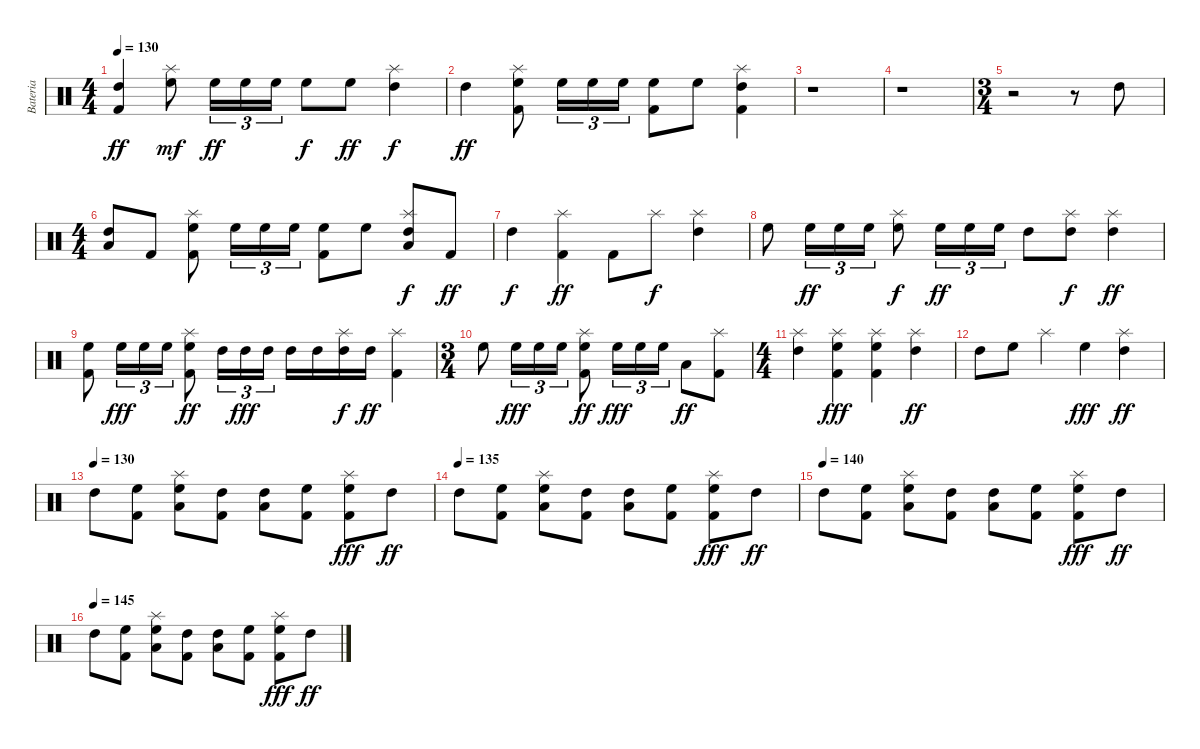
\track ("Bateria" "Bateria") {instrument percussion}
\staff {score}
\articulation defaults
\ts (4 4)
\tempo 130
\clef neutral
\ks c
("High Tom (hit)" "Kick (hit) 2").4{dy ff} ("High Floor Tom (hit)" "Splash (hit)").8{dy mf} "High Floor Tom (hit)".16{tu (3 2) dy ff} "High Floor Tom (hit)".16{tu (3 2)} "High Floor Tom (hit)".16{tu (3 2)} "High Floor Tom (hit)".8{dy f} "High Floor Tom (hit)".8{dy ff} ("High Tom (hit)" "Splash (hit)").4{dy f} |
"High Tom (hit)".4{dy ff} ("High Floor Tom (hit)" "Splash (hit)" "Kick (hit) 2").8 "High Floor Tom (hit)".16{tu (3 2)} "High Floor Tom (hit)".16{tu (3 2)} "High Floor Tom (hit)".16{tu (3 2)} ("High Floor Tom (hit)" "Kick (hit) 2").8 "High Floor Tom (hit)".8 ("High Tom (hit)" "Splash (hit)" "Kick (hit) 2").4 |
r.1 |
r.1 |
\ts (3 4)
r.2 r.8 "High Tom (hit)".8 |
\ts (4 4)
("High Tom (hit)" "Low Floor Tom (hit)").8 "Kick (hit) 2".8 ("High Floor Tom (hit)" "Splash (hit)" "Kick (hit) 2").8 "High Floor Tom (hit)".16{tu (3 2)} "High Floor Tom (hit)".16{tu (3 2)} "High Floor Tom (hit)".16{tu (3 2)} ("High Floor Tom (hit)" "Kick (hit) 2").8 "High Floor Tom (hit)".8 ("High Tom (hit)" "Splash (hit)" "Low Floor Tom (hit)").8{dy f} "Kick (hit) 2".8{dy ff} |
"High Tom (hit)".4{dy f} ("Kick (hit) 2" "Splash (hit)").4{dy ff} "Kick (hit) 2".8 "Splash (hit)".8{dy f} ("High Tom (hit)" "Splash (hit)").4 |
"High Floor Tom (hit)".8 "High Floor Tom (hit)".16{tu (3 2) dy ff} "High Floor Tom (hit)".16{tu (3 2)} "High Floor Tom (hit)".16{tu (3 2)} ("Splash (hit)" "High Floor Tom (hit)").8{dy f} "High Floor Tom (hit)".16{tu (3 2) dy ff} "High Floor Tom (hit)".16{tu (3 2)} "High Floor Tom (hit)".16{tu (3 2)} "High Tom (hit)".8 ("High Tom (hit)" "Splash (hit)").8{dy f} ("High Tom (hit)" "Splash (hit)").4{dy ff} |
("Kick (hit) 2" "High Floor Tom (hit)").8 "High Floor Tom (hit)".16{tu (3 2) dy fff} "High Floor Tom (hit)".16{tu (3 2)} "High Floor Tom (hit)".16{tu (3 2)} ("Kick (hit) 2" "High Floor Tom (hit)" "Splash (hit)").8{dy ff} "High Tom (hit)".16{tu (3 2)} "High Tom (hit)".16{tu (3 2) dy fff} "High Tom (hit)".16{tu (3 2)} "High Tom (hit)".16 "High Tom (hit)".16 ("High Tom (hit)" "Splash (hit)").16{dy f} "High Tom (hit)".16{dy ff} ("Kick (hit) 2" "Splash (hit)").4 |
\ts (3 4)
"High Floor Tom (hit)".8 "High Floor Tom (hit)".16{tu (3 2) dy fff} "High Floor Tom (hit)".16{tu (3 2)} "High Floor Tom (hit)".16{tu (3 2)} ("Kick (hit) 2" "High Floor Tom (hit)" "Splash (hit)").8{dy ff} "High Floor Tom (hit)".16{tu (3 2) dy fff} "High Floor Tom (hit)".16{tu (3 2)} "High Floor Tom (hit)".16{tu (3 2)} "Low Floor Tom (hit)".8{dy ff} ("Kick (hit) 2" "Splash (hit)").8 |
\ts (4 4)
("High Tom (hit)" "Splash (hit)").4 ("High Floor Tom (hit)" "Kick (hit) 2" "Splash (hit)").4{dy fff} ("High Floor Tom (hit)" "Splash (hit)" "Kick (hit) 2").4 ("Splash (hit)" "High Tom (hit)").4{dy ff} |
"High Tom (hit)".8 "High Floor Tom (hit)".8 "Splash (hit)".4 "High Floor Tom (hit)".4{dy fff} ("Splash (hit)" "High Tom (hit)").4{dy ff} |
\tempo (130)
"High Tom (hit)".8 ("Kick (hit) 2" "High Floor Tom (hit)").8 ("High Floor Tom (hit)" "Splash (hit)" "Low Floor Tom (hit)").8 ("High Tom (hit)" "Kick (hit) 2").8 ("High Tom (hit)" "Low Floor Tom (hit)").8 ("Kick (hit) 2" "High Floor Tom (hit)").8 ("High Floor Tom (hit)" "Splash (hit)" "Kick (hit) 2").8{dy fff} "High Tom (hit)".8{dy ff} |
\tempo (135)
"High Tom (hit)".8 ("Kick (hit) 2" "High Floor Tom (hit)").8 ("High Floor Tom (hit)" "Splash (hit)" "Low Floor Tom (hit)").8 ("High Tom (hit)" "Kick (hit) 2").8 ("High Tom (hit)" "Low Floor Tom (hit)").8 ("Kick (hit) 2" "High Floor Tom (hit)").8 ("High Floor Tom (hit)" "Splash (hit)" "Kick (hit) 2").8{dy fff} "High Tom (hit)".8{dy ff} |
\tempo (140)
"High Tom (hit)".8 ("Kick (hit) 2" "High Floor Tom (hit)").8 ("High Floor Tom (hit)" "Splash (hit)" "Low Floor Tom (hit)").8 ("High Tom (hit)" "Kick (hit) 2").8 ("High Tom (hit)" "Low Floor Tom (hit)").8 ("Kick (hit) 2" "High Floor Tom (hit)").8 ("High Floor Tom (hit)" "Splash (hit)" "Kick (hit) 2").8{dy fff} "High Tom (hit)".8{dy ff} |
\tempo (145)
"High Tom (hit)".8 ("Kick (hit) 2" "High Floor Tom (hit)").8 ("High Floor Tom (hit)" "Splash (hit)" "Low Floor Tom (hit)").8 ("High Tom (hit)" "Kick (hit) 2").8 ("High Tom (hit)" "Low Floor Tom (hit)").8 ("Kick (hit) 2" "High Floor Tom (hit)").8 ("High Floor Tom (hit)" "Splash (hit)" "Kick (hit) 2").8{dy fff} "High Tom (hit)".8{dy ff}
